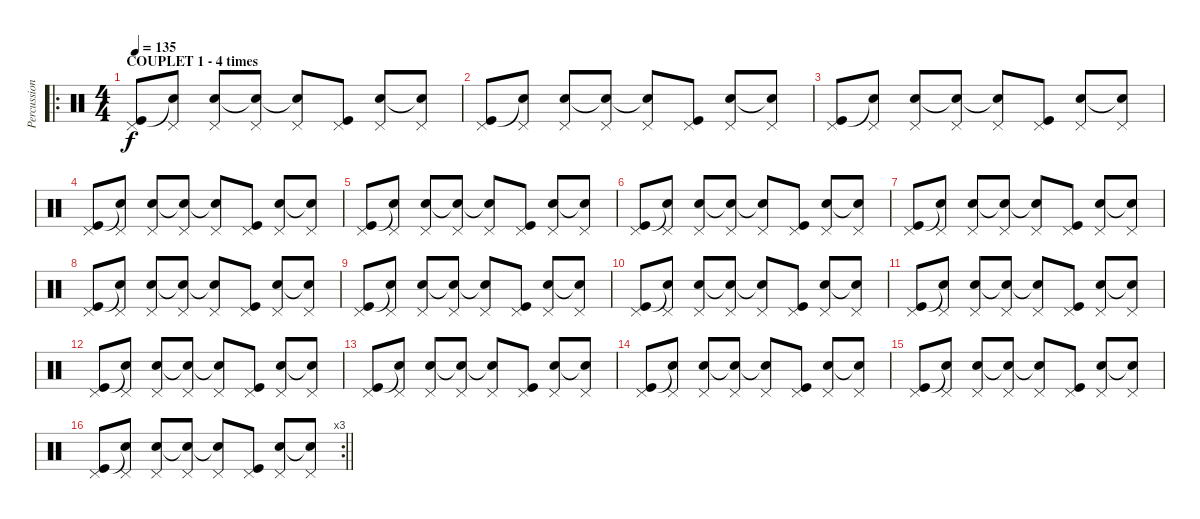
\track ("Percussions" "Percussion") {instrument percussion}
\staff {score}
\articulation defaults
\ro
\ts (4 4)
\section ("" "COUPLET 1 - 4 times")
\tempo 135
\clef neutral
\ks c
("Pedal Hi-Hat (hit)" "Kick (hit)").8{dy f} ("Pedal Hi-Hat (hit)" "Snare (hit)"{t}).8 ("Pedal Hi-Hat (hit)" "Electric Snare (hit)").8 ("Pedal Hi-Hat (hit)" "Snare (hit)"{t}).8 ("Pedal Hi-Hat (hit)" "Snare (hit)"{t}).8 ("Pedal Hi-Hat (hit)" "Kick (hit)").8 ("Pedal Hi-Hat (hit)" "Electric Snare (hit)").8 ("Pedal Hi-Hat (hit)" "Snare (hit)"{t}).8 |
("Pedal Hi-Hat (hit)" "Kick (hit)").8 ("Pedal Hi-Hat (hit)" "Snare (hit)"{t}).8 ("Pedal Hi-Hat (hit)" "Electric Snare (hit)").8 ("Pedal Hi-Hat (hit)" "Snare (hit)"{t}).8 ("Pedal Hi-Hat (hit)" "Snare (hit)"{t}).8 ("Pedal Hi-Hat (hit)" "Kick (hit)").8 ("Pedal Hi-Hat (hit)" "Electric Snare (hit)").8 ("Pedal Hi-Hat (hit)" "Snare (hit)"{t}).8 |
("Pedal Hi-Hat (hit)" "Kick (hit)").8 ("Pedal Hi-Hat (hit)" "Snare (hit)"{t}).8 ("Pedal Hi-Hat (hit)" "Electric Snare (hit)").8 ("Pedal Hi-Hat (hit)" "Snare (hit)"{t}).8 ("Pedal Hi-Hat (hit)" "Snare (hit)"{t}).8 ("Pedal Hi-Hat (hit)" "Kick (hit)").8 ("Pedal Hi-Hat (hit)" "Electric Snare (hit)").8 ("Pedal Hi-Hat (hit)" "Snare (hit)"{t}).8 |
("Pedal Hi-Hat (hit)" "Kick (hit)").8 ("Pedal Hi-Hat (hit)" "Snare (hit)"{t}).8 ("Pedal Hi-Hat (hit)" "Electric Snare (hit)").8 ("Pedal Hi-Hat (hit)" "Snare (hit)"{t}).8 ("Pedal Hi-Hat (hit)" "Snare (hit)"{t}).8 ("Pedal Hi-Hat (hit)" "Kick (hit)").8 ("Pedal Hi-Hat (hit)" "Electric Snare (hit)").8 ("Pedal Hi-Hat (hit)" "Snare (hit)"{t}).8 |
("Pedal Hi-Hat (hit)" "Kick (hit)").8 ("Pedal Hi-Hat (hit)" "Snare (hit)"{t}).8 ("Pedal Hi-Hat (hit)" "Electric Snare (hit)").8 ("Pedal Hi-Hat (hit)" "Snare (hit)"{t}).8 ("Pedal Hi-Hat (hit)" "Snare (hit)"{t}).8 ("Pedal Hi-Hat (hit)" "Kick (hit)").8 ("Pedal Hi-Hat (hit)" "Electric Snare (hit)").8 ("Pedal Hi-Hat (hit)" "Snare (hit)"{t}).8 |
("Pedal Hi-Hat (hit)" "Kick (hit)").8 ("Pedal Hi-Hat (hit)" "Snare (hit)"{t}).8 ("Pedal Hi-Hat (hit)" "Electric Snare (hit)").8 ("Pedal Hi-Hat (hit)" "Snare (hit)"{t}).8 ("Pedal Hi-Hat (hit)" "Snare (hit)"{t}).8 ("Pedal Hi-Hat (hit)" "Kick (hit)").8 ("Pedal Hi-Hat (hit)" "Electric Snare (hit)").8 ("Pedal Hi-Hat (hit)" "Snare (hit)"{t}).8 |
("Pedal Hi-Hat (hit)" "Kick (hit)").8 ("Pedal Hi-Hat (hit)" "Snare (hit)"{t}).8 ("Pedal Hi-Hat (hit)" "Electric Snare (hit)").8 ("Pedal Hi-Hat (hit)" "Snare (hit)"{t}).8 ("Pedal Hi-Hat (hit)" "Snare (hit)"{t}).8 ("Pedal Hi-Hat (hit)" "Kick (hit)").8 ("Pedal Hi-Hat (hit)" "Electric Snare (hit)").8 ("Pedal Hi-Hat (hit)" "Snare (hit)"{t}).8 |
("Pedal Hi-Hat (hit)" "Kick (hit)").8 ("Pedal Hi-Hat (hit)" "Snare (hit)"{t}).8 ("Pedal Hi-Hat (hit)" "Electric Snare (hit)").8 ("Pedal Hi-Hat (hit)" "Snare (hit)"{t}).8 ("Pedal Hi-Hat (hit)" "Snare (hit)"{t}).8 ("Pedal Hi-Hat (hit)" "Kick (hit)").8 ("Pedal Hi-Hat (hit)" "Electric Snare (hit)").8 ("Pedal Hi-Hat (hit)" "Snare (hit)"{t}).8 |
("Pedal Hi-Hat (hit)" "Kick (hit)").8 ("Pedal Hi-Hat (hit)" "Snare (hit)"{t}).8 ("Pedal Hi-Hat (hit)" "Electric Snare (hit)").8 ("Pedal Hi-Hat (hit)" "Snare (hit)"{t}).8 ("Pedal Hi-Hat (hit)" "Snare (hit)"{t}).8 ("Pedal Hi-Hat (hit)" "Kick (hit)").8 ("Pedal Hi-Hat (hit)" "Electric Snare (hit)").8 ("Pedal Hi-Hat (hit)" "Snare (hit)"{t}).8 |
("Pedal Hi-Hat (hit)" "Kick (hit)").8 ("Pedal Hi-Hat (hit)" "Snare (hit)"{t}).8 ("Pedal Hi-Hat (hit)" "Electric Snare (hit)").8 ("Pedal Hi-Hat (hit)" "Snare (hit)"{t}).8 ("Pedal Hi-Hat (hit)" "Snare (hit)"{t}).8 ("Pedal Hi-Hat (hit)" "Kick (hit)").8 ("Pedal Hi-Hat (hit)" "Electric Snare (hit)").8 ("Pedal Hi-Hat (hit)" "Snare (hit)"{t}).8 |
("Pedal Hi-Hat (hit)" "Kick (hit)").8 ("Pedal Hi-Hat (hit)" "Snare (hit)"{t}).8 ("Pedal Hi-Hat (hit)" "Electric Snare (hit)").8 ("Pedal Hi-Hat (hit)" "Snare (hit)"{t}).8 ("Pedal Hi-Hat (hit)" "Snare (hit)"{t}).8 ("Pedal Hi-Hat (hit)" "Kick (hit)").8 ("Pedal Hi-Hat (hit)" "Electric Snare (hit)").8 ("Pedal Hi-Hat (hit)" "Snare (hit)"{t}).8 |
("Pedal Hi-Hat (hit)" "Kick (hit)").8 ("Pedal Hi-Hat (hit)" "Snare (hit)"{t}).8 ("Pedal Hi-Hat (hit)" "Electric Snare (hit)").8 ("Pedal Hi-Hat (hit)" "Snare (hit)"{t}).8 ("Pedal Hi-Hat (hit)" "Snare (hit)"{t}).8 ("Pedal Hi-Hat (hit)" "Kick (hit)").8 ("Pedal Hi-Hat (hit)" "Electric Snare (hit)").8 ("Pedal Hi-Hat (hit)" "Snare (hit)"{t}).8 |
("Pedal Hi-Hat (hit)" "Kick (hit)").8 ("Pedal Hi-Hat (hit)" "Snare (hit)"{t}).8 ("Pedal Hi-Hat (hit)" "Electric Snare (hit)").8 ("Pedal Hi-Hat (hit)" "Snare (hit)"{t}).8 ("Pedal Hi-Hat (hit)" "Snare (hit)"{t}).8 ("Pedal Hi-Hat (hit)" "Kick (hit)").8 ("Pedal Hi-Hat (hit)" "Electric Snare (hit)").8 ("Pedal Hi-Hat (hit)" "Snare (hit)"{t}).8 |
("Pedal Hi-Hat (hit)" "Kick (hit)").8 ("Pedal Hi-Hat (hit)" "Snare (hit)"{t}).8 ("Pedal Hi-Hat (hit)" "Electric Snare (hit)").8 ("Pedal Hi-Hat (hit)" "Snare (hit)"{t}).8 ("Pedal Hi-Hat (hit)" "Snare (hit)"{t}).8 ("Pedal Hi-Hat (hit)" "Kick (hit)").8 ("Pedal Hi-Hat (hit)" "Electric Snare (hit)").8 ("Pedal Hi-Hat (hit)" "Snare (hit)"{t}).8 |
("Pedal Hi-Hat (hit)" "Kick (hit)").8 ("Pedal Hi-Hat (hit)" "Snare (hit)"{t}).8 ("Pedal Hi-Hat (hit)" "Electric Snare (hit)").8 ("Pedal Hi-Hat (hit)" "Snare (hit)"{t}).8 ("Pedal Hi-Hat (hit)" "Snare (hit)"{t}).8 ("Pedal Hi-Hat (hit)" "Kick (hit)").8 ("Pedal Hi-Hat (hit)" "Electric Snare (hit)").8 ("Pedal Hi-Hat (hit)" "Snare (hit)"{t}).8 |
\rc 3
\barLineRight lightlight
("Pedal Hi-Hat (hit)" "Kick (hit)").8 ("Pedal Hi-Hat (hit)" "Snare (hit)"{t}).8 ("Pedal Hi-Hat (hit)" "Electric Snare (hit)").8 ("Pedal Hi-Hat (hit)" "Snare (hit)"{t}).8 ("Pedal Hi-Hat (hit)" "Snare (hit)"{t}).8 ("Pedal Hi-Hat (hit)" "Kick (hit)").8 ("Pedal Hi-Hat (hit)" "Electric Snare (hit)").8 ("Pedal Hi-Hat (hit)" "Snare (hit)"{t}).8
